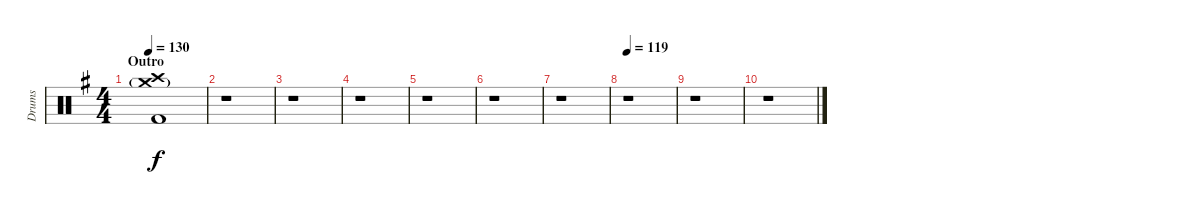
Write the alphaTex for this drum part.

\track ("Drums" "Drums") {instrument percussion}
\staff {score}
\articulation defaults
\ts (4 4)
\section ("" "Outro")
\tempo 130
\clef neutral
\ks eminor
("Crash high (hit)" "Crash medium (hit)"{g} "Kick (hit) 2").1{dy f} |
r.1 |
r.1 |
r.1 |
r.1 |
r.1 |
r.1 |
\tempo 119
r.1 |
r.1 |
r.1
